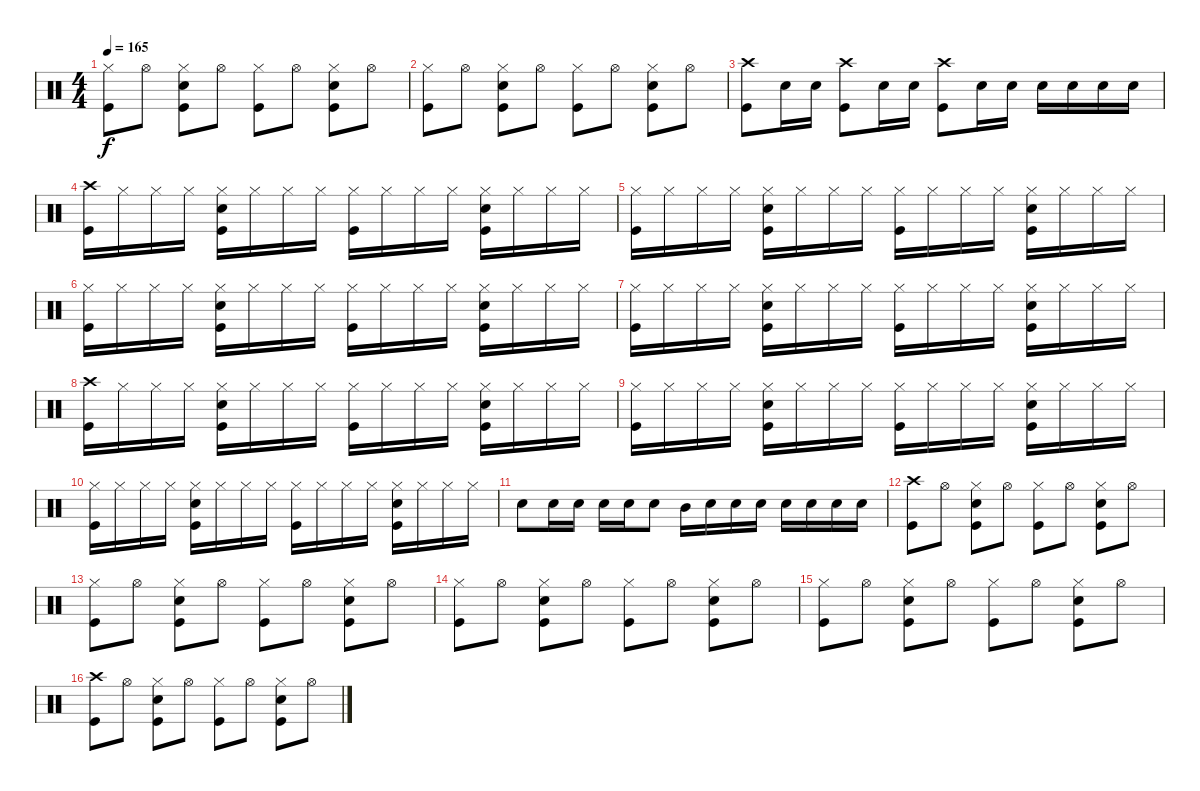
\track "" {instrument percussion}
\staff {score}
\articulation defaults
\ts (4 4)
\tempo 165
\clef neutral
\ks c
("Hi-Hat (closed)" "Kick (hit)").8{dy f} "Hi-Hat (open)".8 ("Hi-Hat (closed)" "Electric Snare (hit)" "Kick (hit)").8 "Hi-Hat (open)".8 ("Hi-Hat (closed)" "Kick (hit)").8 "Hi-Hat (open)".8 ("Hi-Hat (closed)" "Electric Snare (hit)" "Kick (hit)").8 "Hi-Hat (open)".8 |
("Hi-Hat (closed)" "Kick (hit)").8 "Hi-Hat (open)".8 ("Hi-Hat (closed)" "Electric Snare (hit)" "Kick (hit)").8 "Hi-Hat (open)".8 ("Hi-Hat (closed)" "Kick (hit)").8 "Hi-Hat (open)".8 ("Hi-Hat (closed)" "Electric Snare (hit)" "Kick (hit)").8 "Hi-Hat (open)".8 |
("Crash high (hit)" "Kick (hit)").8 "Electric Snare (hit)".16 "Electric Snare (hit)".16 ("Crash high (hit)" "Kick (hit)").8 "Electric Snare (hit)".16 "Electric Snare (hit)".16 ("Crash high (hit)" "Kick (hit)").8 "Electric Snare (hit)".16 "Electric Snare (hit)".16 "Electric Snare (hit)".16 "Electric Snare (hit)".16 "Electric Snare (hit)".16 "Electric Snare (hit)".16 |
("Crash high (hit)" "Kick (hit)").16 "Hi-Hat (closed)".16 "Hi-Hat (closed)".16 "Hi-Hat (closed)".16 ("Hi-Hat (closed)" "Electric Snare (hit)" "Kick (hit)").16 "Hi-Hat (closed)".16 "Hi-Hat (closed)".16 "Hi-Hat (closed)".16 ("Hi-Hat (closed)" "Kick (hit)").16 "Hi-Hat (closed)".16 "Hi-Hat (closed)".16 "Hi-Hat (closed)".16 ("Hi-Hat (closed)" "Electric Snare (hit)" "Kick (hit)").16 "Hi-Hat (closed)".16 "Hi-Hat (closed)".16 "Hi-Hat (closed)".16 |
("Hi-Hat (closed)" "Kick (hit)").16 "Hi-Hat (closed)".16 "Hi-Hat (closed)".16 "Hi-Hat (closed)".16 ("Hi-Hat (closed)" "Electric Snare (hit)" "Kick (hit)").16 "Hi-Hat (closed)".16 "Hi-Hat (closed)".16 "Hi-Hat (closed)".16 ("Hi-Hat (closed)" "Kick (hit)").16 "Hi-Hat (closed)".16 "Hi-Hat (closed)".16 "Hi-Hat (closed)".16 ("Hi-Hat (closed)" "Electric Snare (hit)" "Kick (hit)").16 "Hi-Hat (closed)".16 "Hi-Hat (closed)".16 "Hi-Hat (closed)".16 |
("Hi-Hat (closed)" "Kick (hit)").16 "Hi-Hat (closed)".16 "Hi-Hat (closed)".16 "Hi-Hat (closed)".16 ("Hi-Hat (closed)" "Electric Snare (hit)" "Kick (hit)").16 "Hi-Hat (closed)".16 "Hi-Hat (closed)".16 "Hi-Hat (closed)".16 ("Hi-Hat (closed)" "Kick (hit)").16 "Hi-Hat (closed)".16 "Hi-Hat (closed)".16 "Hi-Hat (closed)".16 ("Hi-Hat (closed)" "Electric Snare (hit)" "Kick (hit)").16 "Hi-Hat (closed)".16 "Hi-Hat (closed)".16 "Hi-Hat (closed)".16 |
("Hi-Hat (closed)" "Kick (hit)").16 "Hi-Hat (closed)".16 "Hi-Hat (closed)".16 "Hi-Hat (closed)".16 ("Hi-Hat (closed)" "Electric Snare (hit)" "Kick (hit)").16 "Hi-Hat (closed)".16 "Hi-Hat (closed)".16 "Hi-Hat (closed)".16 ("Hi-Hat (closed)" "Kick (hit)").16 "Hi-Hat (closed)".16 "Hi-Hat (closed)".16 "Hi-Hat (closed)".16 ("Hi-Hat (closed)" "Electric Snare (hit)" "Kick (hit)").16 "Hi-Hat (closed)".16 "Hi-Hat (closed)".16 "Hi-Hat (closed)".16 |
("Crash high (hit)" "Kick (hit)").16 "Hi-Hat (closed)".16 "Hi-Hat (closed)".16 "Hi-Hat (closed)".16 ("Hi-Hat (closed)" "Electric Snare (hit)" "Kick (hit)").16 "Hi-Hat (closed)".16 "Hi-Hat (closed)".16 "Hi-Hat (closed)".16 ("Hi-Hat (closed)" "Kick (hit)").16 "Hi-Hat (closed)".16 "Hi-Hat (closed)".16 "Hi-Hat (closed)".16 ("Hi-Hat (closed)" "Electric Snare (hit)" "Kick (hit)").16 "Hi-Hat (closed)".16 "Hi-Hat (closed)".16 "Hi-Hat (closed)".16 |
("Hi-Hat (closed)" "Kick (hit)").16 "Hi-Hat (closed)".16 "Hi-Hat (closed)".16 "Hi-Hat (closed)".16 ("Hi-Hat (closed)" "Electric Snare (hit)" "Kick (hit)").16 "Hi-Hat (closed)".16 "Hi-Hat (closed)".16 "Hi-Hat (closed)".16 ("Hi-Hat (closed)" "Kick (hit)").16 "Hi-Hat (closed)".16 "Hi-Hat (closed)".16 "Hi-Hat (closed)".16 ("Hi-Hat (closed)" "Electric Snare (hit)" "Kick (hit)").16 "Hi-Hat (closed)".16 "Hi-Hat (closed)".16 "Hi-Hat (closed)".16 |
("Hi-Hat (closed)" "Kick (hit)").16 "Hi-Hat (closed)".16 "Hi-Hat (closed)".16 "Hi-Hat (closed)".16 ("Hi-Hat (closed)" "Electric Snare (hit)" "Kick (hit)").16 "Hi-Hat (closed)".16 "Hi-Hat (closed)".16 "Hi-Hat (closed)".16 ("Hi-Hat (closed)" "Kick (hit)").16 "Hi-Hat (closed)".16 "Hi-Hat (closed)".16 "Hi-Hat (closed)".16 ("Hi-Hat (closed)" "Electric Snare (hit)" "Kick (hit)").16 "Hi-Hat (closed)".16 "Hi-Hat (closed)".16 "Hi-Hat (closed)".16 |
"Electric Snare (hit)".8 "Electric Snare (hit)".16 "Electric Snare (hit)".16 "Electric Snare (hit)".16 "Electric Snare (hit)".16 "Electric Snare (hit)".8 "Mid Tom (hit)".16 "Electric Snare (hit)".16 "Electric Snare (hit)".16 "Electric Snare (hit)".16 "Electric Snare (hit)".16 "Electric Snare (hit)".16 "Electric Snare (hit)".16 "Electric Snare (hit)".16 |
("Crash high (hit)" "Kick (hit)").8 "Hi-Hat (open)".8 ("Hi-Hat (closed)" "Electric Snare (hit)" "Kick (hit)").8 "Hi-Hat (open)".8 ("Hi-Hat (closed)" "Kick (hit)").8 "Hi-Hat (open)".8 ("Hi-Hat (closed)" "Electric Snare (hit)" "Kick (hit)").8 "Hi-Hat (open)".8 |
("Hi-Hat (closed)" "Kick (hit)").8 "Hi-Hat (open)".8 ("Hi-Hat (closed)" "Electric Snare (hit)" "Kick (hit)").8 "Hi-Hat (open)".8 ("Hi-Hat (closed)" "Kick (hit)").8 "Hi-Hat (open)".8 ("Hi-Hat (closed)" "Electric Snare (hit)" "Kick (hit)").8 "Hi-Hat (open)".8 |
("Hi-Hat (closed)" "Kick (hit)").8 "Hi-Hat (open)".8 ("Hi-Hat (closed)" "Electric Snare (hit)" "Kick (hit)").8 "Hi-Hat (open)".8 ("Hi-Hat (closed)" "Kick (hit)").8 "Hi-Hat (open)".8 ("Hi-Hat (closed)" "Electric Snare (hit)" "Kick (hit)").8 "Hi-Hat (open)".8 |
("Hi-Hat (closed)" "Kick (hit)").8 "Hi-Hat (open)".8 ("Hi-Hat (closed)" "Electric Snare (hit)" "Kick (hit)").8 "Hi-Hat (open)".8 ("Hi-Hat (closed)" "Kick (hit)").8 "Hi-Hat (open)".8 ("Hi-Hat (closed)" "Electric Snare (hit)" "Kick (hit)").8 "Hi-Hat (open)".8 |
("Crash high (hit)" "Kick (hit)").8 "Hi-Hat (open)".8 ("Hi-Hat (closed)" "Electric Snare (hit)" "Kick (hit)").8 "Hi-Hat (open)".8 ("Hi-Hat (closed)" "Kick (hit)").8 "Hi-Hat (open)".8 ("Hi-Hat (closed)" "Electric Snare (hit)" "Kick (hit)").8 "Hi-Hat (open)".8
